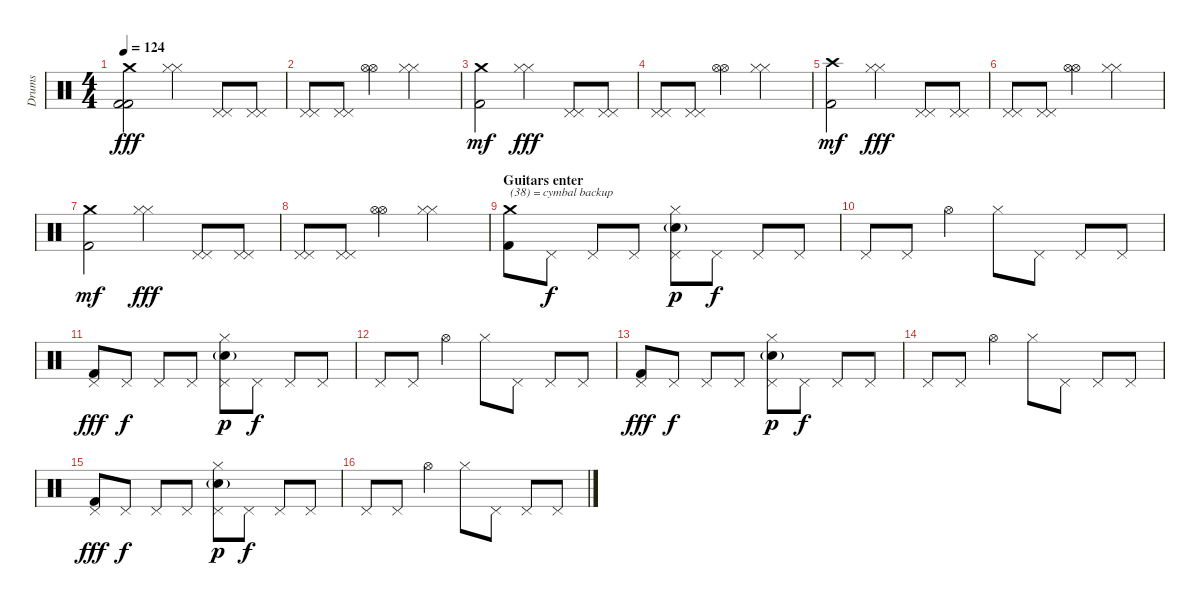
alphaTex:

\track ("Drums" "Drums") {instrument percussion}
\staff {score}
\articulation defaults
\ts (4 4)
\tempo 124
\clef neutral
\ks c
("Crash medium (hit)" "Kick (hit) 2" "Kick (hit) 2").2{dy fff} ("Hi-Hat (closed)" "Hi-Hat (closed)").4 ("Pedal Hi-Hat (hit)" "Pedal Hi-Hat (hit)").8 ("Pedal Hi-Hat (hit)" "Pedal Hi-Hat (hit)").8 |
("Pedal Hi-Hat (hit)" "Pedal Hi-Hat (hit)").8 ("Pedal Hi-Hat (hit)" "Pedal Hi-Hat (hit)").8 ("Hi-Hat (open)" "Hi-Hat (open)").4 ("Hi-Hat (closed)" "Hi-Hat (closed)").2 |
("Crash medium (hit)" "Kick (hit) 2").2{dy mf balance 0} ("Hi-Hat (closed)" "Hi-Hat (closed)").4{dy fff balance 8} ("Pedal Hi-Hat (hit)" "Pedal Hi-Hat (hit)").8 ("Pedal Hi-Hat (hit)" "Pedal Hi-Hat (hit)").8 |
("Pedal Hi-Hat (hit)" "Pedal Hi-Hat (hit)").8 ("Pedal Hi-Hat (hit)" "Pedal Hi-Hat (hit)").8 ("Hi-Hat (open)" "Hi-Hat (open)").4 ("Hi-Hat (closed)" "Hi-Hat (closed)").2 |
("Crash high (hit)" "Kick (hit) 2").2{dy mf balance 16} ("Hi-Hat (closed)" "Hi-Hat (closed)").4{dy fff balance 8} ("Pedal Hi-Hat (hit)" "Pedal Hi-Hat (hit)").8 ("Pedal Hi-Hat (hit)" "Pedal Hi-Hat (hit)").8 |
("Pedal Hi-Hat (hit)" "Pedal Hi-Hat (hit)").8 ("Pedal Hi-Hat (hit)" "Pedal Hi-Hat (hit)").8 ("Hi-Hat (open)" "Hi-Hat (open)").4 ("Hi-Hat (closed)" "Hi-Hat (closed)").2 |
("Crash medium (hit)" "Kick (hit) 2").2{dy mf balance 0} ("Hi-Hat (closed)" "Hi-Hat (closed)").4{dy fff balance 8} ("Pedal Hi-Hat (hit)" "Pedal Hi-Hat (hit)").8 ("Pedal Hi-Hat (hit)" "Pedal Hi-Hat (hit)").8 |
("Pedal Hi-Hat (hit)" "Pedal Hi-Hat (hit)").8 ("Pedal Hi-Hat (hit)" "Pedal Hi-Hat (hit)").8 ("Hi-Hat (open)" "Hi-Hat (open)").4 ("Hi-Hat (closed)" "Hi-Hat (closed)").2 |
\section ("" "Guitars enter")
("Crash medium (hit)" "Kick (hit) 2").8{txt "(38) = cymbal backup"} "Pedal Hi-Hat (hit)".8{dy f} "Pedal Hi-Hat (hit)".8 "Pedal Hi-Hat (hit)".8 ("Hi-Hat (closed)" "Pedal Hi-Hat (hit)" "Snare (hit) 2"{g}).8{dy p} "Pedal Hi-Hat (hit)".8{dy f} "Pedal Hi-Hat (hit)".8 "Pedal Hi-Hat (hit)".8 |
"Pedal Hi-Hat (hit)".8 "Pedal Hi-Hat (hit)".8 "Hi-Hat (open)".4 "Hi-Hat (closed)".8 "Pedal Hi-Hat (hit)".8 "Pedal Hi-Hat (hit)".8 "Pedal Hi-Hat (hit)".8 |
("Pedal Hi-Hat (hit)" "Kick (hit) 2").8{dy fff} "Pedal Hi-Hat (hit)".8{dy f} "Pedal Hi-Hat (hit)".8 "Pedal Hi-Hat (hit)".8 ("Hi-Hat (closed)" "Pedal Hi-Hat (hit)" "Snare (hit) 2"{g}).8{dy p} "Pedal Hi-Hat (hit)".8{dy f} "Pedal Hi-Hat (hit)".8 "Pedal Hi-Hat (hit)".8 |
"Pedal Hi-Hat (hit)".8 "Pedal Hi-Hat (hit)".8 "Hi-Hat (open)".4 "Hi-Hat (closed)".8 "Pedal Hi-Hat (hit)".8 "Pedal Hi-Hat (hit)".8 "Pedal Hi-Hat (hit)".8 |
("Pedal Hi-Hat (hit)" "Kick (hit) 2").8{dy fff} "Pedal Hi-Hat (hit)".8{dy f} "Pedal Hi-Hat (hit)".8 "Pedal Hi-Hat (hit)".8 ("Hi-Hat (closed)" "Pedal Hi-Hat (hit)" "Snare (hit) 2"{g}).8{dy p} "Pedal Hi-Hat (hit)".8{dy f} "Pedal Hi-Hat (hit)".8 "Pedal Hi-Hat (hit)".8 |
"Pedal Hi-Hat (hit)".8 "Pedal Hi-Hat (hit)".8 "Hi-Hat (open)".4 "Hi-Hat (closed)".8 "Pedal Hi-Hat (hit)".8 "Pedal Hi-Hat (hit)".8 "Pedal Hi-Hat (hit)".8 |
("Pedal Hi-Hat (hit)" "Kick (hit) 2").8{dy fff} "Pedal Hi-Hat (hit)".8{dy f} "Pedal Hi-Hat (hit)".8 "Pedal Hi-Hat (hit)".8 ("Hi-Hat (closed)" "Pedal Hi-Hat (hit)" "Snare (hit) 2"{g}).8{dy p} "Pedal Hi-Hat (hit)".8{dy f} "Pedal Hi-Hat (hit)".8 "Pedal Hi-Hat (hit)".8 |
"Pedal Hi-Hat (hit)".8 "Pedal Hi-Hat (hit)".8 "Hi-Hat (open)".4 "Hi-Hat (closed)".8 "Pedal Hi-Hat (hit)".8 "Pedal Hi-Hat (hit)".8 "Pedal Hi-Hat (hit)".8
